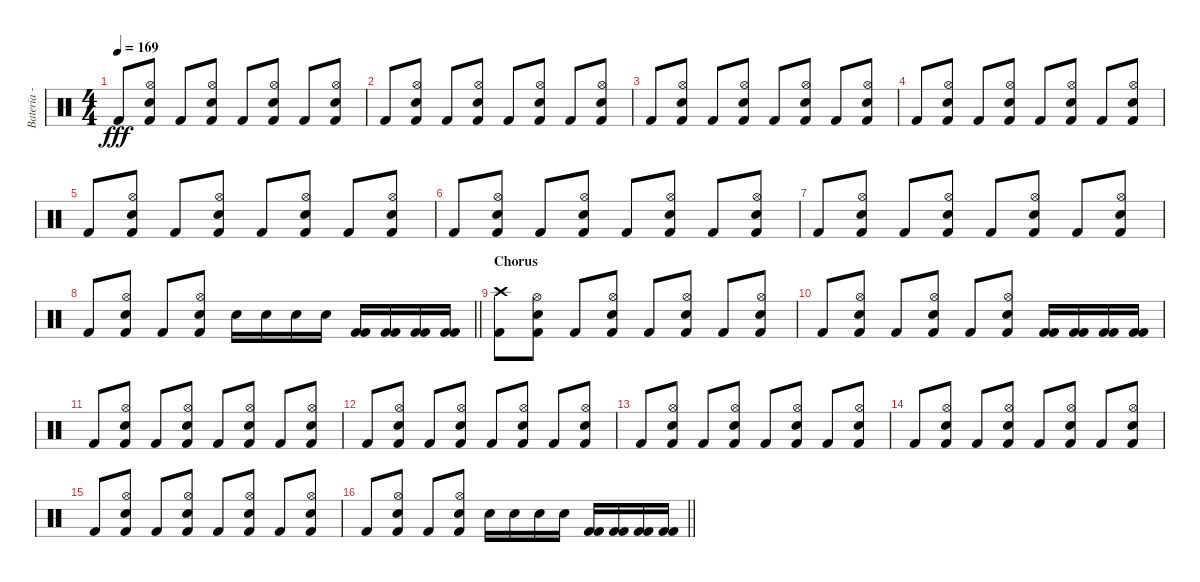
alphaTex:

\track ("Bateria - Larzon" "Bateria - ") {instrument percussion}
\staff {score}
\articulation defaults
\ts (4 4)
\tempo 169
\clef neutral
\ks c "Kick (hit) 2".8{dy fff}
("Kick (hit) 2" "Hi-Hat (open)" "Snare (hit) 2").8 "Kick (hit) 2".8 ("Kick (hit) 2" "Hi-Hat (open)" "Snare (hit) 2").8 "Kick (hit) 2".8 ("Kick (hit) 2" "Hi-Hat (open)" "Snare (hit) 2").8 "Kick (hit) 2".8 ("Kick (hit) 2" "Hi-Hat (open)" "Snare (hit) 2").8 |
"Kick (hit) 2".8 ("Kick (hit) 2" "Hi-Hat (open)" "Snare (hit) 2").8 "Kick (hit) 2".8 ("Kick (hit) 2" "Hi-Hat (open)" "Snare (hit) 2").8 "Kick (hit) 2".8 ("Kick (hit) 2" "Hi-Hat (open)" "Snare (hit) 2").8 "Kick (hit) 2".8 ("Kick (hit) 2" "Hi-Hat (open)" "Snare (hit) 2").8 |
"Kick (hit) 2".8 ("Kick (hit) 2" "Hi-Hat (open)" "Snare (hit) 2").8 "Kick (hit) 2".8 ("Kick (hit) 2" "Hi-Hat (open)" "Snare (hit) 2").8 "Kick (hit) 2".8 ("Kick (hit) 2" "Hi-Hat (open)" "Snare (hit) 2").8 "Kick (hit) 2".8 ("Kick (hit) 2" "Hi-Hat (open)" "Snare (hit) 2").8 |
"Kick (hit) 2".8 ("Kick (hit) 2" "Hi-Hat (open)" "Snare (hit) 2").8 "Kick (hit) 2".8 ("Kick (hit) 2" "Hi-Hat (open)" "Snare (hit) 2").8 "Kick (hit) 2".8 ("Kick (hit) 2" "Hi-Hat (open)" "Snare (hit) 2").8 "Kick (hit) 2".8 ("Kick (hit) 2" "Hi-Hat (open)" "Snare (hit) 2").8 |
"Kick (hit) 2".8 ("Kick (hit) 2" "Hi-Hat (open)" "Snare (hit) 2").8 "Kick (hit) 2".8 ("Kick (hit) 2" "Hi-Hat (open)" "Snare (hit) 2").8 "Kick (hit) 2".8 ("Kick (hit) 2" "Hi-Hat (open)" "Snare (hit) 2").8 "Kick (hit) 2".8 ("Kick (hit) 2" "Hi-Hat (open)" "Snare (hit) 2").8 |
"Kick (hit) 2".8 ("Kick (hit) 2" "Hi-Hat (open)" "Snare (hit) 2").8 "Kick (hit) 2".8 ("Kick (hit) 2" "Hi-Hat (open)" "Snare (hit) 2").8 "Kick (hit) 2".8 ("Kick (hit) 2" "Hi-Hat (open)" "Snare (hit) 2").8 "Kick (hit) 2".8 ("Kick (hit) 2" "Hi-Hat (open)" "Snare (hit) 2").8 |
"Kick (hit) 2".8 ("Kick (hit) 2" "Hi-Hat (open)" "Snare (hit) 2").8 "Kick (hit) 2".8 ("Kick (hit) 2" "Hi-Hat (open)" "Snare (hit) 2").8 "Kick (hit) 2".8 ("Kick (hit) 2" "Hi-Hat (open)" "Snare (hit) 2").8 "Kick (hit) 2".8 ("Kick (hit) 2" "Hi-Hat (open)" "Snare (hit) 2").8 |
\barLineRight lightlight "Kick (hit) 2".8
("Kick (hit) 2" "Hi-Hat (open)" "Snare (hit) 2").8 "Kick (hit) 2".8 ("Kick (hit) 2" "Hi-Hat (open)" "Snare (hit) 2").8 "Snare (hit) 2".16 "Snare (hit) 2".16 "Snare (hit) 2".16 "Snare (hit) 2".16 ("Kick (hit) 2" "Kick (hit) 2").16 ("Kick (hit) 2" "Kick (hit) 2").16 ("Kick (hit) 2" "Kick (hit) 2").16 ("Kick (hit) 2" "Kick (hit) 2").16 |
\section ("" "Chorus")
("Crash high (hit)" "Kick (hit) 2").8 ("Kick (hit) 2" "Hi-Hat (open)" "Snare (hit) 2").8 "Kick (hit) 2".8 ("Kick (hit) 2" "Hi-Hat (open)" "Snare (hit) 2").8 "Kick (hit) 2".8 ("Kick (hit) 2" "Hi-Hat (open)" "Snare (hit) 2").8 "Kick (hit) 2".8 ("Kick (hit) 2" "Hi-Hat (open)" "Snare (hit) 2").8 |
"Kick (hit) 2".8 ("Kick (hit) 2" "Hi-Hat (open)" "Snare (hit) 2").8 "Kick (hit) 2".8 ("Kick (hit) 2" "Hi-Hat (open)" "Snare (hit) 2").8 "Kick (hit) 2".8 ("Kick (hit) 2" "Hi-Hat (open)" "Snare (hit) 2").8 ("Kick (hit) 2" "Kick (hit) 2").16 ("Kick (hit) 2" "Kick (hit) 2").16 ("Kick (hit) 2" "Kick (hit) 2").16 ("Kick (hit) 2" "Kick (hit) 2").16 |
"Kick (hit) 2".8 ("Kick (hit) 2" "Hi-Hat (open)" "Snare (hit) 2").8 "Kick (hit) 2".8 ("Kick (hit) 2" "Hi-Hat (open)" "Snare (hit) 2").8 "Kick (hit) 2".8 ("Kick (hit) 2" "Hi-Hat (open)" "Snare (hit) 2").8 "Kick (hit) 2".8 ("Kick (hit) 2" "Hi-Hat (open)" "Snare (hit) 2").8 |
"Kick (hit) 2".8 ("Kick (hit) 2" "Hi-Hat (open)" "Snare (hit) 2").8 "Kick (hit) 2".8 ("Kick (hit) 2" "Hi-Hat (open)" "Snare (hit) 2").8 "Kick (hit) 2".8 ("Kick (hit) 2" "Hi-Hat (open)" "Snare (hit) 2").8 "Kick (hit) 2".8 ("Kick (hit) 2" "Hi-Hat (open)" "Snare (hit) 2").8 |
"Kick (hit) 2".8 ("Kick (hit) 2" "Hi-Hat (open)" "Snare (hit) 2").8 "Kick (hit) 2".8 ("Kick (hit) 2" "Hi-Hat (open)" "Snare (hit) 2").8 "Kick (hit) 2".8 ("Kick (hit) 2" "Hi-Hat (open)" "Snare (hit) 2").8 "Kick (hit) 2".8 ("Kick (hit) 2" "Hi-Hat (open)" "Snare (hit) 2").8 |
"Kick (hit) 2".8 ("Kick (hit) 2" "Hi-Hat (open)" "Snare (hit) 2").8 "Kick (hit) 2".8 ("Kick (hit) 2" "Hi-Hat (open)" "Snare (hit) 2").8 "Kick (hit) 2".8 ("Kick (hit) 2" "Hi-Hat (open)" "Snare (hit) 2").8 "Kick (hit) 2".8 ("Kick (hit) 2" "Hi-Hat (open)" "Snare (hit) 2").8 |
"Kick (hit) 2".8 ("Kick (hit) 2" "Hi-Hat (open)" "Snare (hit) 2").8 "Kick (hit) 2".8 ("Kick (hit) 2" "Hi-Hat (open)" "Snare (hit) 2").8 "Kick (hit) 2".8 ("Kick (hit) 2" "Hi-Hat (open)" "Snare (hit) 2").8 "Kick (hit) 2".8 ("Kick (hit) 2" "Hi-Hat (open)" "Snare (hit) 2").8 |
\barLineRight lightlight "Kick (hit) 2".8
("Kick (hit) 2" "Hi-Hat (open)" "Snare (hit) 2").8 "Kick (hit) 2".8 ("Kick (hit) 2" "Hi-Hat (open)" "Snare (hit) 2").8 "Snare (hit) 2".16 "Snare (hit) 2".16 "Snare (hit) 2".16 "Snare (hit) 2".16 ("Kick (hit) 2" "Kick (hit) 2").16 ("Kick (hit) 2" "Kick (hit) 2").16 ("Kick (hit) 2" "Kick (hit) 2").16 ("Kick (hit) 2" "Kick (hit) 2").16
